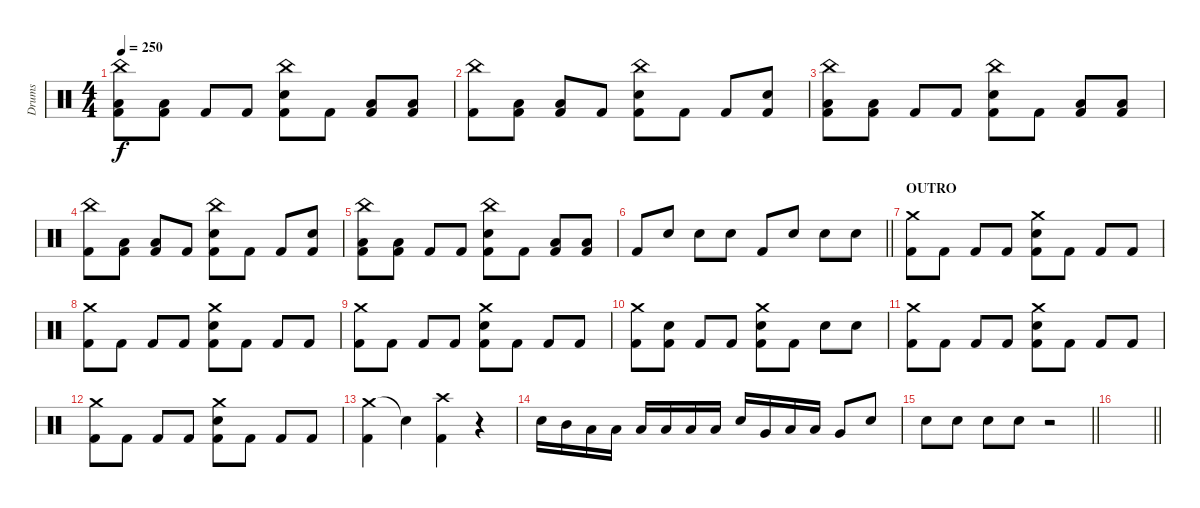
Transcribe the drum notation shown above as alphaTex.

\track ("Drums" "Drums") {instrument percussion}
\staff {score}
\articulation defaults
\ts (4 4)
\tempo 250
\clef neutral
\ks c
("China (hit)" "Low Tom (hit)" "Kick (hit) 2").8{dy f} ("Low Floor Tom (hit)" "Kick (hit) 2").8 "Kick (hit) 2".8 "Kick (hit) 2".8 ("China (hit)" "Electric Snare (hit)" "Kick (hit) 2").8 "Kick (hit) 2".8 ("Low Tom (hit)" "Kick (hit) 2").8 ("Low Floor Tom (hit)" "Kick (hit) 2").8 |
("China (hit)" "Kick (hit) 2").8 ("Low Tom (hit)" "Kick (hit) 2").8 ("Low Floor Tom (hit)" "Kick (hit) 2").8 "Kick (hit) 2".8 ("China (hit)" "Electric Snare (hit)" "Kick (hit) 2").8 "Kick (hit) 2".8 "Kick (hit) 2".8 ("Electric Snare (hit)" "Kick (hit) 2").8 |
("China (hit)" "Low Tom (hit)" "Kick (hit) 2").8 ("Low Floor Tom (hit)" "Kick (hit) 2").8 "Kick (hit) 2".8 "Kick (hit) 2".8 ("China (hit)" "Electric Snare (hit)" "Kick (hit) 2").8 "Kick (hit) 2".8 ("Low Tom (hit)" "Kick (hit) 2").8 ("Low Floor Tom (hit)" "Kick (hit) 2").8 |
("China (hit)" "Kick (hit) 2").8 ("Low Tom (hit)" "Kick (hit) 2").8 ("Low Floor Tom (hit)" "Kick (hit) 2").8 "Kick (hit) 2".8 ("China (hit)" "Electric Snare (hit)" "Kick (hit) 2").8 "Kick (hit) 2".8 "Kick (hit) 2".8 ("Electric Snare (hit)" "Kick (hit) 2").8 |
("China (hit)" "Low Tom (hit)" "Kick (hit) 2").8 ("Low Floor Tom (hit)" "Kick (hit) 2").8 "Kick (hit) 2".8 "Kick (hit) 2".8 ("China (hit)" "Electric Snare (hit)" "Kick (hit) 2").8 "Kick (hit) 2".8 ("Low Tom (hit)" "Kick (hit) 2").8 ("Low Floor Tom (hit)" "Kick (hit) 2").8 |
\barLineRight lightlight "Kick (hit) 2".8 "Electric Snare (hit)".8 "Electric Snare (hit)".8 "Electric Snare (hit)".8 "Kick (hit) 2".8 "Electric Snare (hit)".8 "Electric Snare (hit)".8 "Electric Snare (hit)".8
|
\section ("" "OUTRO")
("Crash medium (hit)" "Kick (hit) 2").8 "Kick (hit) 2".8 "Kick (hit) 2".8 "Kick (hit) 2".8 ("Crash medium (hit)" "Electric Snare (hit)" "Kick (hit) 2").8 "Kick (hit) 2".8 "Kick (hit) 2".8 "Kick (hit) 2".8 |
("Crash medium (hit)" "Kick (hit) 2").8 "Kick (hit) 2".8 "Kick (hit) 2".8 "Kick (hit) 2".8 ("Crash medium (hit)" "Electric Snare (hit)" "Kick (hit) 2").8 "Kick (hit) 2".8 "Kick (hit) 2".8 "Kick (hit) 2".8 |
("Crash medium (hit)" "Kick (hit) 2").8 "Kick (hit) 2".8 "Kick (hit) 2".8 "Kick (hit) 2".8 ("Crash medium (hit)" "Electric Snare (hit)" "Kick (hit) 2").8 "Kick (hit) 2".8 "Kick (hit) 2".8 "Kick (hit) 2".8 |
("Crash medium (hit)" "Kick (hit) 2").8 ("Electric Snare (hit)" "Kick (hit) 2").8 "Kick (hit) 2".8 "Kick (hit) 2".8 ("Crash medium (hit)" "Electric Snare (hit)" "Kick (hit) 2").8 "Kick (hit) 2".8 "Electric Snare (hit)".8 "Electric Snare (hit)".8 |
("Crash medium (hit)" "Kick (hit) 2").8 "Kick (hit) 2".8 "Kick (hit) 2".8 "Kick (hit) 2".8 ("Crash medium (hit)" "Electric Snare (hit)" "Kick (hit) 2").8 "Kick (hit) 2".8 "Kick (hit) 2".8 "Kick (hit) 2".8 |
("Crash medium (hit)" "Kick (hit) 2").8 "Kick (hit) 2".8 "Kick (hit) 2".8 "Kick (hit) 2".8 ("Crash medium (hit)" "Electric Snare (hit)" "Kick (hit) 2").8 "Kick (hit) 2".8 "Kick (hit) 2".8 "Kick (hit) 2".8 |
("Crash medium (hit)" "Kick (hit) 2").4 "Snare (hit)"{t}.4 ("Crash high (hit)" "Kick (hit) 2").4 r.4 |
"Electric Snare (hit)".16 "Mid Tom (hit)".16 "Low Floor Tom (hit)".16 "Low Floor Tom (hit)".16 "Low Tom (hit)".16 "Low Tom (hit)".16 "Low Floor Tom (hit)".16 "Low Floor Tom (hit)".16 "Electric Snare (hit)".16 "Very Low Tom (hit)".16 "Low Floor Tom (hit)".16 "Low Floor Tom (hit)".16 "Very Low Tom (hit)".8 "Electric Snare (hit)".8 |
\barLineRight lightlight "Electric Snare (hit)".8 "Electric Snare (hit)".8 "Electric Snare (hit)".8 "Electric Snare (hit)".8
r.2 |
\barLineRight lightlight
